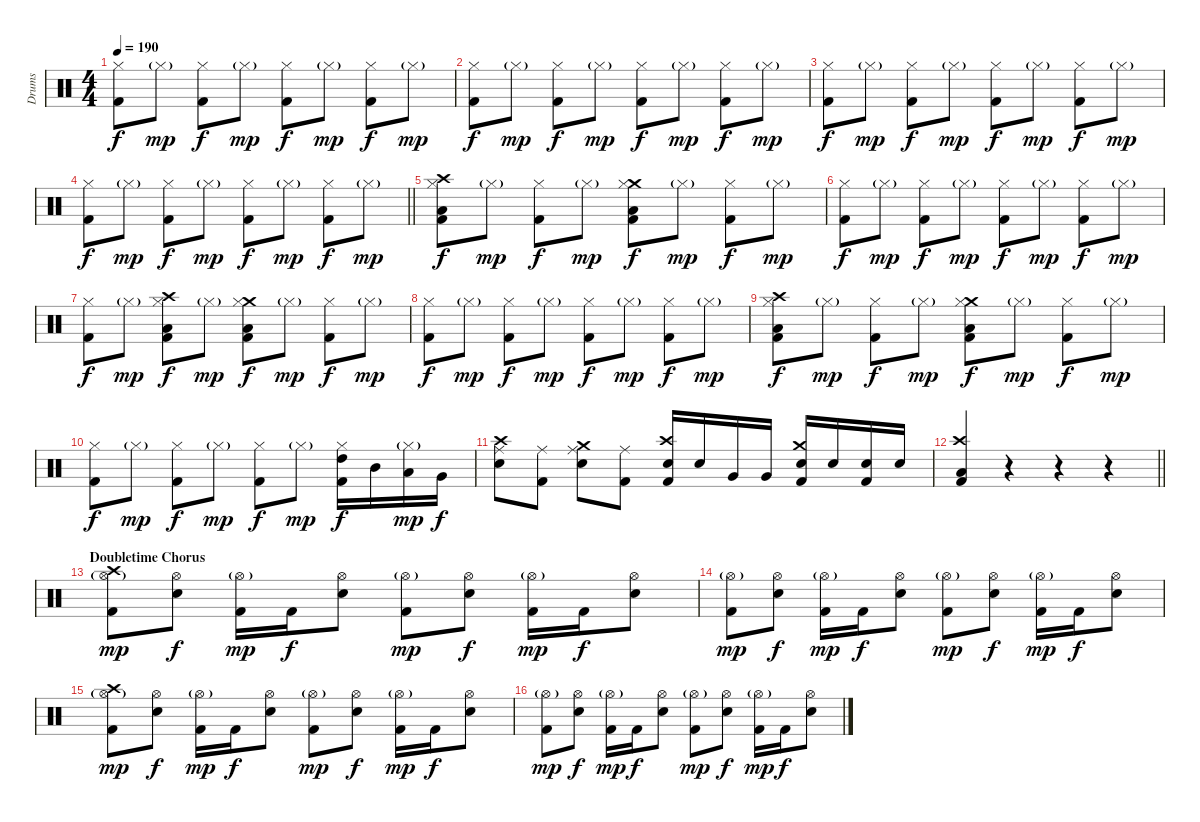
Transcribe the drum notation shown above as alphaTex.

\track ("Drums" "Drums") {instrument percussion}
\staff {score}
\articulation defaults
\ts (4 4)
\tempo 190
\clef neutral
\ks c
("Hi-Hat (closed)" "Kick (hit) 2").8{dy f} "Hi-Hat (closed)"{g}.8{dy mp} ("Hi-Hat (closed)" "Kick (hit) 2").8{dy f} "Hi-Hat (closed)"{g}.8{dy mp} ("Hi-Hat (closed)" "Kick (hit) 2").8{dy f} "Hi-Hat (closed)"{g}.8{dy mp} ("Hi-Hat (closed)" "Kick (hit) 2").8{dy f} "Hi-Hat (closed)"{g}.8{dy mp} |
("Hi-Hat (closed)" "Kick (hit) 2").8{dy f} "Hi-Hat (closed)"{g}.8{dy mp} ("Hi-Hat (closed)" "Kick (hit) 2").8{dy f} "Hi-Hat (closed)"{g}.8{dy mp} ("Hi-Hat (closed)" "Kick (hit) 2").8{dy f} "Hi-Hat (closed)"{g}.8{dy mp} ("Hi-Hat (closed)" "Kick (hit) 2").8{dy f} "Hi-Hat (closed)"{g}.8{dy mp} |
("Hi-Hat (closed)" "Kick (hit) 2").8{dy f} "Hi-Hat (closed)"{g}.8{dy mp} ("Hi-Hat (closed)" "Kick (hit) 2").8{dy f} "Hi-Hat (closed)"{g}.8{dy mp} ("Hi-Hat (closed)" "Kick (hit) 2").8{dy f} "Hi-Hat (closed)"{g}.8{dy mp} ("Hi-Hat (closed)" "Kick (hit) 2").8{dy f} "Hi-Hat (closed)"{g}.8{dy mp} |
\barLineRight lightlight
("Hi-Hat (closed)" "Kick (hit) 2").8{dy f} "Hi-Hat (closed)"{g}.8{dy mp} ("Hi-Hat (closed)" "Kick (hit) 2").8{dy f} "Hi-Hat (closed)"{g}.8{dy mp} ("Hi-Hat (closed)" "Kick (hit) 2").8{dy f} "Hi-Hat (closed)"{g}.8{dy mp} ("Hi-Hat (closed)" "Kick (hit) 2").8{dy f} "Hi-Hat (closed)"{g}.8{dy mp} |
("Crash high (hit)" "Hi-Hat (closed)" "Low Floor Tom (hit)" "Kick (hit) 2").8{dy f} "Hi-Hat (closed)"{g}.8{dy mp} ("Hi-Hat (closed)" "Kick (hit) 2").8{dy f} "Hi-Hat (closed)"{g}.8{dy mp} ("Crash medium (hit)" "Hi-Hat (closed)" "Low Floor Tom (hit)" "Kick (hit) 2").8{dy f} "Hi-Hat (closed)"{g}.8{dy mp} ("Hi-Hat (closed)" "Kick (hit) 2").8{dy f} "Hi-Hat (closed)"{g}.8{dy mp} |
("Hi-Hat (closed)" "Kick (hit) 2").8{dy f} "Hi-Hat (closed)"{g}.8{dy mp} ("Hi-Hat (closed)" "Kick (hit) 2").8{dy f} "Hi-Hat (closed)"{g}.8{dy mp} ("Hi-Hat (closed)" "Kick (hit) 2").8{dy f} "Hi-Hat (closed)"{g}.8{dy mp} ("Hi-Hat (closed)" "Kick (hit) 2").8{dy f} "Hi-Hat (closed)"{g}.8{dy mp} |
("Hi-Hat (closed)" "Kick (hit) 2").8{dy f} "Hi-Hat (closed)"{g}.8{dy mp} ("Crash high (hit)" "Hi-Hat (closed)" "Low Floor Tom (hit)" "Kick (hit) 2").8{dy f} "Hi-Hat (closed)"{g}.8{dy mp} ("Crash medium (hit)" "Hi-Hat (closed)" "Low Floor Tom (hit)" "Kick (hit) 2").8{dy f} "Hi-Hat (closed)"{g}.8{dy mp} ("Hi-Hat (closed)" "Kick (hit) 2").8{dy f} "Hi-Hat (closed)"{g}.8{dy mp} |
("Hi-Hat (closed)" "Kick (hit) 2").8{dy f} "Hi-Hat (closed)"{g}.8{dy mp} ("Hi-Hat (closed)" "Kick (hit) 2").8{dy f} "Hi-Hat (closed)"{g}.8{dy mp} ("Hi-Hat (closed)" "Kick (hit) 2").8{dy f} "Hi-Hat (closed)"{g}.8{dy mp} ("Hi-Hat (closed)" "Kick (hit) 2").8{dy f} "Hi-Hat (closed)"{g}.8{dy mp} |
("Crash high (hit)" "Hi-Hat (closed)" "Low Floor Tom (hit)" "Kick (hit) 2").8{dy f} "Hi-Hat (closed)"{g}.8{dy mp} ("Hi-Hat (closed)" "Kick (hit) 2").8{dy f} "Hi-Hat (closed)"{g}.8{dy mp} ("Crash medium (hit)" "Hi-Hat (closed)" "Low Floor Tom (hit)" "Kick (hit) 2").8{dy f} "Hi-Hat (closed)"{g}.8{dy mp} ("Hi-Hat (closed)" "Kick (hit) 2").8{dy f} "Hi-Hat (closed)"{g}.8{dy mp} |
("Hi-Hat (closed)" "Kick (hit) 2").8{dy f} "Hi-Hat (closed)"{g}.8{dy mp} ("Hi-Hat (closed)" "Kick (hit) 2").8{dy f} "Hi-Hat (closed)"{g}.8{dy mp} ("Hi-Hat (closed)" "Kick (hit) 2").8{dy f} "Hi-Hat (closed)"{g}.8{dy mp} ("Hi-Hat (closed)" "High Tom (hit)" "Kick (hit) 2").16{dy f} "Mid Tom (hit)".16 ("Hi-Hat (closed)"{g} "Low Tom (hit)").16{dy mp} "Very Low Tom (hit)".16{dy f} |
("Crash high (hit)" "Ride (middle)" "Snare (hit) 2").8 ("Ride (middle)" "Kick (hit) 2").8 ("Crash medium (hit)" "Ride (middle)" "Snare (hit) 2").8 ("Ride (middle)" "Kick (hit) 2").8 ("Crash high (hit)" "Snare (hit) 2" "Kick (hit) 2").16 "Snare (hit) 2".16 "Very Low Tom (hit)".16 "Very Low Tom (hit)".16 ("Crash medium (hit)" "Snare (hit) 2" "Kick (hit) 2").16 "Snare (hit) 2".16 ("Snare (hit) 2" "Kick (hit) 2").16 "Snare (hit) 2".16 |
\barLineRight lightlight
("Crash high (hit)" "Low Floor Tom (hit)" "Kick (hit) 2").4 r.4 r.4 r.4 |
\section ("" "Doubletime Chorus")
("Crash high (hit)" "Hi-Hat (open)"{g} "Kick (hit) 2").8{dy mp} ("Hi-Hat (open)" "Snare (hit) 2").8{dy f} ("Hi-Hat (open)"{g} "Kick (hit) 2").16{dy mp} "Kick (hit) 2".16{dy f} ("Hi-Hat (open)" "Snare (hit) 2").8 ("Hi-Hat (open)"{g} "Kick (hit) 2").8{dy mp} ("Hi-Hat (open)" "Snare (hit) 2").8{dy f} ("Hi-Hat (open)"{g} "Kick (hit) 2").16{dy mp} "Kick (hit) 2".16{dy f} ("Hi-Hat (open)" "Snare (hit) 2").8 |
("Hi-Hat (open)"{g} "Kick (hit) 2").8{dy mp} ("Hi-Hat (open)" "Snare (hit) 2").8{dy f} ("Hi-Hat (open)"{g} "Kick (hit) 2").16{dy mp} "Kick (hit) 2".16{dy f} ("Hi-Hat (open)" "Snare (hit) 2").8 ("Hi-Hat (open)"{g} "Kick (hit) 2").8{dy mp} ("Hi-Hat (open)" "Snare (hit) 2").8{dy f} ("Hi-Hat (open)"{g} "Kick (hit) 2").16{dy mp} "Kick (hit) 2".16{dy f} ("Hi-Hat (open)" "Snare (hit) 2").8 |
("Crash high (hit)" "Hi-Hat (open)"{g} "Kick (hit) 2").8{dy mp} ("Hi-Hat (open)" "Snare (hit) 2").8{dy f} ("Hi-Hat (open)"{g} "Kick (hit) 2").16{dy mp} "Kick (hit) 2".16{dy f} ("Hi-Hat (open)" "Snare (hit) 2").8 ("Hi-Hat (open)"{g} "Kick (hit) 2").8{dy mp} ("Hi-Hat (open)" "Snare (hit) 2").8{dy f} ("Hi-Hat (open)"{g} "Kick (hit) 2").16{dy mp} "Kick (hit) 2".16{dy f} ("Hi-Hat (open)" "Snare (hit) 2").8 |
("Hi-Hat (open)"{g} "Kick (hit) 2").8{dy mp} ("Hi-Hat (open)" "Snare (hit) 2").8{dy f} ("Hi-Hat (open)"{g} "Kick (hit) 2").16{dy mp} "Kick (hit) 2".16{dy f} ("Hi-Hat (open)" "Snare (hit) 2").8 ("Hi-Hat (open)"{g} "Kick (hit) 2").8{dy mp} ("Hi-Hat (open)" "Snare (hit) 2").8{dy f} ("Hi-Hat (open)"{g} "Kick (hit) 2").16{dy mp} "Kick (hit) 2".16{dy f} ("Hi-Hat (open)" "Snare (hit) 2").8
